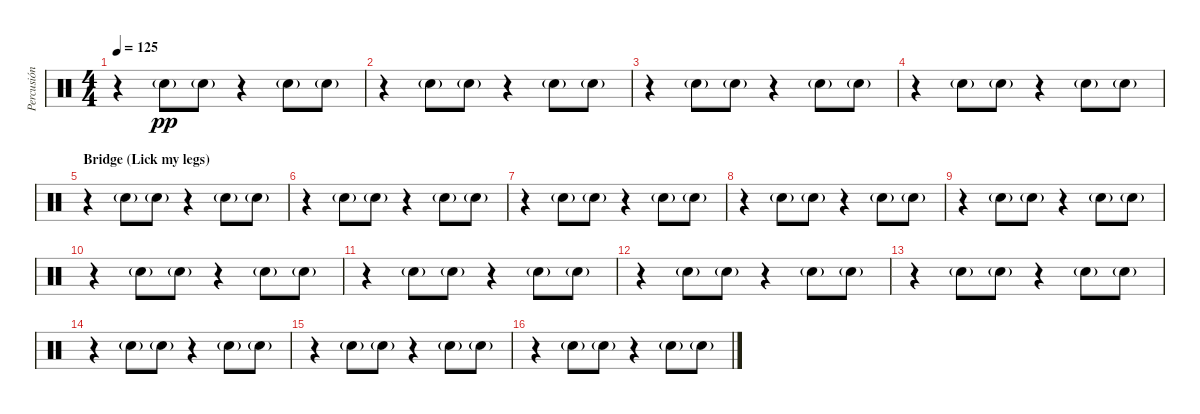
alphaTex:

\track ("Percusión" "Percusión") {instrument percussion}
\staff {score}
\articulation defaults
\ts (4 4)
\tempo 125
\clef neutral
\ks c
r.4{dy pp} "Snare (hit) 2"{g}.8 "Snare (hit) 2"{g}.8 r.4 "Snare (hit) 2"{g}.8 "Snare (hit) 2"{g}.8 |
r.4 "Snare (hit) 2"{g}.8 "Snare (hit) 2"{g}.8 r.4 "Snare (hit) 2"{g}.8 "Snare (hit) 2"{g}.8 |
r.4 "Snare (hit) 2"{g}.8 "Snare (hit) 2"{g}.8 r.4 "Snare (hit) 2"{g}.8 "Snare (hit) 2"{g}.8 |
r.4 "Snare (hit) 2"{g}.8 "Snare (hit) 2"{g}.8 r.4 "Snare (hit) 2"{g}.8 "Snare (hit) 2"{g}.8 |
\section ("" "Bridge (Lick my legs)")
r.4 "Snare (hit) 2"{g}.8 "Snare (hit) 2"{g}.8 r.4 "Snare (hit) 2"{g}.8 "Snare (hit) 2"{g}.8 |
r.4 "Snare (hit) 2"{g}.8 "Snare (hit) 2"{g}.8 r.4 "Snare (hit) 2"{g}.8 "Snare (hit) 2"{g}.8 |
r.4 "Snare (hit) 2"{g}.8 "Snare (hit) 2"{g}.8 r.4 "Snare (hit) 2"{g}.8 "Snare (hit) 2"{g}.8 |
r.4 "Snare (hit) 2"{g}.8 "Snare (hit) 2"{g}.8 r.4 "Snare (hit) 2"{g}.8 "Snare (hit) 2"{g}.8 |
r.4 "Snare (hit) 2"{g}.8 "Snare (hit) 2"{g}.8 r.4 "Snare (hit) 2"{g}.8 "Snare (hit) 2"{g}.8 |
r.4 "Snare (hit) 2"{g}.8 "Snare (hit) 2"{g}.8 r.4 "Snare (hit) 2"{g}.8 "Snare (hit) 2"{g}.8 |
r.4 "Snare (hit) 2"{g}.8 "Snare (hit) 2"{g}.8 r.4 "Snare (hit) 2"{g}.8 "Snare (hit) 2"{g}.8 |
r.4 "Snare (hit) 2"{g}.8 "Snare (hit) 2"{g}.8 r.4 "Snare (hit) 2"{g}.8 "Snare (hit) 2"{g}.8 |
r.4 "Snare (hit) 2"{g}.8 "Snare (hit) 2"{g}.8 r.4 "Snare (hit) 2"{g}.8 "Snare (hit) 2"{g}.8 |
r.4 "Snare (hit) 2"{g}.8 "Snare (hit) 2"{g}.8 r.4 "Snare (hit) 2"{g}.8 "Snare (hit) 2"{g}.8 |
r.4 "Snare (hit) 2"{g}.8 "Snare (hit) 2"{g}.8 r.4 "Snare (hit) 2"{g}.8 "Snare (hit) 2"{g}.8 |
r.4 "Snare (hit) 2"{g}.8 "Snare (hit) 2"{g}.8 r.4 "Snare (hit) 2"{g}.8 "Snare (hit) 2"{g}.8
